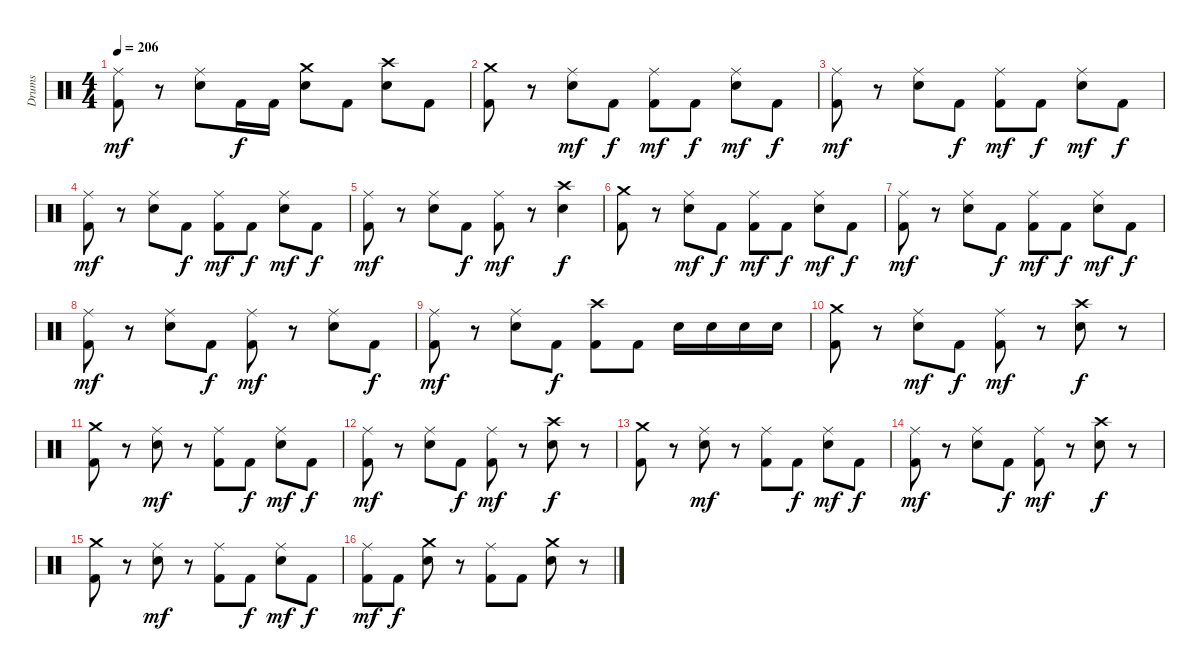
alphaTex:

\track ("Drums" "Drums") {instrument percussion}
\staff {score}
\articulation defaults
\ts (4 4)
\tempo 206
\clef neutral
\ks c
("Ride (middle)" "Kick (hit) 2").8{dy mf} r.8 ("Ride (middle)" "Snare (hit) 2").8 "Kick (hit) 2".16{dy f} "Kick (hit) 2".16 ("Crash medium (hit)" "Snare (hit) 2").8 "Kick (hit) 2".8 ("Crash high (hit)" "Snare (hit) 2").8 "Kick (hit) 2".8 |
("Crash medium (hit)" "Kick (hit) 2").8 r.8 ("Ride (middle)" "Snare (hit) 2").8{dy mf} "Kick (hit) 2".8{dy f} ("Ride (middle)" "Kick (hit) 2").8{dy mf} "Kick (hit) 2".8{dy f} ("Ride (middle)" "Snare (hit) 2").8{dy mf} "Kick (hit) 2".8{dy f} |
("Ride (middle)" "Kick (hit) 2").8{dy mf} r.8 ("Ride (middle)" "Snare (hit) 2").8 "Kick (hit) 2".8{dy f} ("Ride (middle)" "Kick (hit) 2").8{dy mf} "Kick (hit) 2".8{dy f} ("Ride (middle)" "Snare (hit) 2").8{dy mf} "Kick (hit) 2".8{dy f} |
("Ride (middle)" "Kick (hit) 2").8{dy mf} r.8 ("Ride (middle)" "Snare (hit) 2").8 "Kick (hit) 2".8{dy f} ("Ride (middle)" "Kick (hit) 2").8{dy mf} "Kick (hit) 2".8{dy f} ("Ride (middle)" "Snare (hit) 2").8{dy mf} "Kick (hit) 2".8{dy f} |
("Ride (middle)" "Kick (hit) 2").8{dy mf} r.8 ("Ride (middle)" "Snare (hit) 2").8 "Kick (hit) 2".8{dy f} ("Ride (middle)" "Kick (hit) 2").8{dy mf} r.8 ("Crash high (hit)" "Snare (hit) 2").4{dy f} |
("Crash medium (hit)" "Kick (hit) 2").8 r.8 ("Ride (middle)" "Snare (hit) 2").8{dy mf} "Kick (hit) 2".8{dy f} ("Ride (middle)" "Kick (hit) 2").8{dy mf} "Kick (hit) 2".8{dy f} ("Ride (middle)" "Snare (hit) 2").8{dy mf} "Kick (hit) 2".8{dy f} |
("Ride (middle)" "Kick (hit) 2").8{dy mf} r.8 ("Ride (middle)" "Snare (hit) 2").8 "Kick (hit) 2".8{dy f} ("Ride (middle)" "Kick (hit) 2").8{dy mf} "Kick (hit) 2".8{dy f} ("Ride (middle)" "Snare (hit) 2").8{dy mf} "Kick (hit) 2".8{dy f} |
("Ride (middle)" "Kick (hit) 2").8{dy mf} r.8 ("Ride (middle)" "Snare (hit) 2").8 "Kick (hit) 2".8{dy f} ("Ride (middle)" "Kick (hit) 2").8{dy mf} r.8 ("Ride (middle)" "Snare (hit) 2").8 "Kick (hit) 2".8{dy f} |
("Ride (middle)" "Kick (hit) 2").8{dy mf} r.8 ("Ride (middle)" "Snare (hit) 2").8 "Kick (hit) 2".8{dy f} ("Crash high (hit)" "Kick (hit) 2").8 "Kick (hit) 2".8 "Snare (hit) 2".16 "Snare (hit) 2".16 "Snare (hit) 2".16 "Snare (hit) 2".16 |
("Crash medium (hit)" "Kick (hit) 2").8 r.8 ("Ride (middle)" "Snare (hit) 2").8{dy mf} "Kick (hit) 2".8{dy f} ("Ride (middle)" "Kick (hit) 2").8{dy mf} r.8 ("Crash high (hit)" "Snare (hit) 2").8{dy f} r.8 |
("Crash medium (hit)" "Kick (hit) 2").8 r.8 ("Ride (middle)" "Snare (hit) 2").8{dy mf} r.8 ("Ride (middle)" "Kick (hit) 2").8 "Kick (hit) 2".8{dy f} ("Ride (middle)" "Snare (hit) 2").8{dy mf} "Kick (hit) 2".8{dy f} |
("Ride (middle)" "Kick (hit) 2").8{dy mf} r.8 ("Ride (middle)" "Snare (hit) 2").8 "Kick (hit) 2".8{dy f} ("Ride (middle)" "Kick (hit) 2").8{dy mf} r.8 ("Crash high (hit)" "Snare (hit) 2").8{dy f} r.8 |
("Crash medium (hit)" "Kick (hit) 2").8 r.8 ("Ride (middle)" "Snare (hit) 2").8{dy mf} r.8 ("Ride (middle)" "Kick (hit) 2").8 "Kick (hit) 2".8{dy f} ("Ride (middle)" "Snare (hit) 2").8{dy mf} "Kick (hit) 2".8{dy f} |
("Ride (middle)" "Kick (hit) 2").8{dy mf} r.8 ("Ride (middle)" "Snare (hit) 2").8 "Kick (hit) 2".8{dy f} ("Ride (middle)" "Kick (hit) 2").8{dy mf} r.8 ("Crash high (hit)" "Snare (hit) 2").8{dy f} r.8 |
("Crash medium (hit)" "Kick (hit) 2").8 r.8 ("Ride (middle)" "Snare (hit) 2").8{dy mf} r.8 ("Ride (middle)" "Kick (hit) 2").8 "Kick (hit) 2".8{dy f} ("Ride (middle)" "Snare (hit) 2").8{dy mf} "Kick (hit) 2".8{dy f} |
("Ride (middle)" "Kick (hit) 2").8{dy mf} "Kick (hit) 2".8{dy f} ("Crash medium (hit)" "Snare (hit) 2").8 r.8 ("Ride (middle)" "Kick (hit) 2").8 "Kick (hit) 2".8 ("Crash medium (hit)" "Snare (hit) 2").8 r.8
